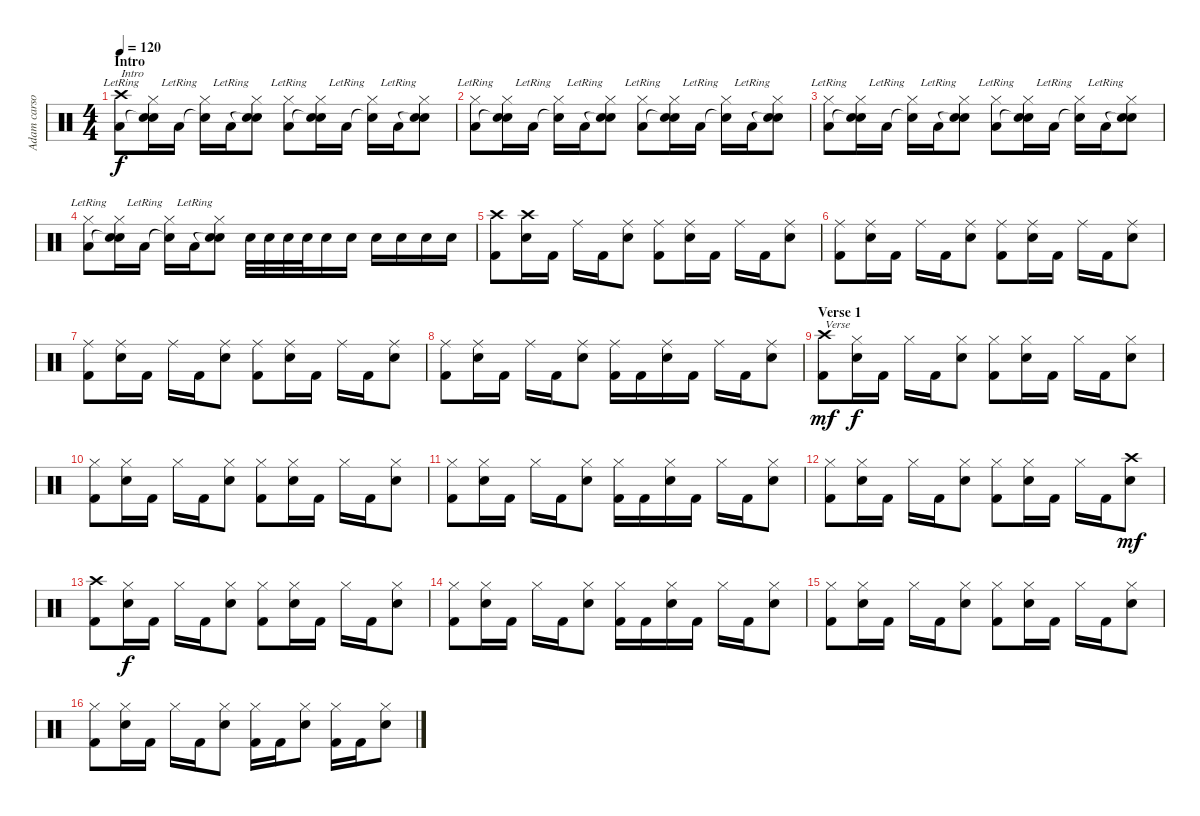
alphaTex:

\track ("Adam carson" "Adam carso") {instrument percussion}
\staff {score}
\articulation defaults
\ts (4 4)
\section ("" "Intro")
\tempo 120
\clef neutral
\ks c
("Low Floor Tom (hit)"{lr} "Crash high (hit)").8{txt "Intro" dy f} ("Snare (hit)"{t} "Snare (hit) 2" "Hi-Hat (closed)").16 "Low Floor Tom (hit)"{lr}.16 ("Snare (hit)"{t} "Hi-Hat (closed)").16 "Low Floor Tom (hit)"{lr}.16 ("Snare (hit)"{t} "Snare (hit) 2" "Hi-Hat (closed)").8 ("Low Floor Tom (hit)"{lr} "Hi-Hat (closed)").8 ("Snare (hit)"{t} "Snare (hit) 2" "Hi-Hat (closed)").16 "Low Floor Tom (hit)"{lr}.16 ("Snare (hit)"{t} "Hi-Hat (closed)").16 "Low Floor Tom (hit)"{lr}.16 ("Snare (hit)"{t} "Snare (hit) 2" "Hi-Hat (closed)").8 |
("Low Floor Tom (hit)"{lr} "Hi-Hat (closed)").8 ("Snare (hit)"{t} "Snare (hit) 2" "Hi-Hat (closed)").16 "Low Floor Tom (hit)"{lr}.16 ("Snare (hit)"{t} "Hi-Hat (closed)").16 "Low Floor Tom (hit)"{lr}.16 ("Snare (hit)"{t} "Snare (hit) 2" "Hi-Hat (closed)").8 ("Low Floor Tom (hit)"{lr} "Hi-Hat (closed)").8 ("Snare (hit)"{t} "Snare (hit) 2" "Hi-Hat (closed)").16 "Low Floor Tom (hit)"{lr}.16 ("Snare (hit)"{t} "Hi-Hat (closed)").16 "Low Floor Tom (hit)"{lr}.16 ("Snare (hit)"{t} "Snare (hit) 2" "Hi-Hat (closed)").8 |
("Low Floor Tom (hit)"{lr} "Hi-Hat (closed)").8 ("Snare (hit)"{t} "Snare (hit) 2" "Hi-Hat (closed)").16 "Low Floor Tom (hit)"{lr}.16 ("Snare (hit)"{t} "Hi-Hat (closed)").16 "Low Floor Tom (hit)"{lr}.16 ("Snare (hit)"{t} "Snare (hit) 2" "Hi-Hat (closed)").8 ("Low Floor Tom (hit)"{lr} "Hi-Hat (closed)").8 ("Snare (hit)"{t} "Snare (hit) 2" "Hi-Hat (closed)").16 "Low Floor Tom (hit)"{lr}.16 ("Snare (hit)"{t} "Hi-Hat (closed)").16 "Low Floor Tom (hit)"{lr}.16 ("Snare (hit)"{t} "Snare (hit) 2" "Hi-Hat (closed)").8 |
("Low Floor Tom (hit)"{lr} "Hi-Hat (closed)").8 ("Snare (hit)"{t} "Snare (hit) 2" "Hi-Hat (closed)").16 "Low Floor Tom (hit)"{lr}.16 ("Snare (hit)"{t} "Hi-Hat (closed)").16 "Low Floor Tom (hit)"{lr}.16 ("Snare (hit)"{t} "Snare (hit) 2" "Hi-Hat (closed)").8 "Snare (hit) 2".32 "Snare (hit) 2".32 "Snare (hit) 2".32 "Snare (hit) 2".32 "Snare (hit) 2".16 "Snare (hit) 2".16 "Snare (hit) 2".16 "Snare (hit) 2".16 "Snare (hit) 2".16 "Snare (hit) 2".16 |
("Kick (hit) 2" "Crash high (hit)").8 ("Crash high (hit)" "Snare (hit) 2").16 "Kick (hit) 2".16 "Ride (middle)".16 "Kick (hit) 2".16 ("Ride (middle)" "Snare (hit) 2").8 ("Kick (hit) 2" "Ride (middle)").8 ("Ride (middle)" "Snare (hit) 2").16 "Kick (hit) 2".16 "Ride (middle)".16 "Kick (hit) 2".16 ("Ride (middle)" "Snare (hit) 2").8 |
("Kick (hit) 2" "Ride (middle)").8 ("Ride (middle)" "Snare (hit) 2").16 "Kick (hit) 2".16 "Ride (middle)".16 "Kick (hit) 2".16 ("Ride (middle)" "Snare (hit) 2").8 ("Kick (hit) 2" "Ride (middle)").8 ("Ride (middle)" "Snare (hit) 2").16 "Kick (hit) 2".16 "Ride (middle)".16 "Kick (hit) 2".16 ("Ride (middle)" "Snare (hit) 2").8 |
("Kick (hit) 2" "Ride (middle)").8 ("Ride (middle)" "Snare (hit) 2").16 "Kick (hit) 2".16 "Ride (middle)".16 "Kick (hit) 2".16 ("Ride (middle)" "Snare (hit) 2").8 ("Kick (hit) 2" "Ride (middle)").8 ("Ride (middle)" "Snare (hit) 2").16 "Kick (hit) 2".16 "Ride (middle)".16 "Kick (hit) 2".16 ("Ride (middle)" "Snare (hit) 2").8 |
("Kick (hit) 2" "Ride (middle)").8 ("Snare (hit) 2" "Ride (middle)").16 "Kick (hit) 2".16 "Ride (middle)".16 "Kick (hit) 2".16 ("Snare (hit) 2" "Ride (middle)").8 ("Kick (hit) 2" "Ride (middle)").16 "Kick (hit) 2".16 ("Snare (hit) 2" "Ride (middle)").16 "Kick (hit) 2".16 "Ride (middle)".16 "Kick (hit) 2".16 ("Snare (hit) 2" "Ride (middle)").8 |
\section ("" "Verse 1")
("Kick (hit) 2" "Crash high (hit)").8{txt "Verse" dy mf} ("Snare (hit) 2" "Hi-Hat (closed)").16{dy f} "Kick (hit) 2".16 "Hi-Hat (closed)".16 "Kick (hit) 2".16 ("Snare (hit) 2" "Hi-Hat (closed)").8 ("Kick (hit) 2" "Hi-Hat (closed)").8 ("Snare (hit) 2" "Hi-Hat (closed)").16 "Kick (hit) 2".16 "Hi-Hat (closed)".16 "Kick (hit) 2".16 ("Snare (hit) 2" "Hi-Hat (closed)").8 |
("Kick (hit) 2" "Hi-Hat (closed)").8 ("Snare (hit) 2" "Hi-Hat (closed)").16 "Kick (hit) 2".16 "Hi-Hat (closed)".16 "Kick (hit) 2".16 ("Snare (hit) 2" "Hi-Hat (closed)").8 ("Kick (hit) 2" "Hi-Hat (closed)").8 ("Snare (hit) 2" "Hi-Hat (closed)").16 "Kick (hit) 2".16 "Hi-Hat (closed)".16 "Kick (hit) 2".16 ("Snare (hit) 2" "Hi-Hat (closed)").8 |
("Kick (hit) 2" "Hi-Hat (closed)").8 ("Snare (hit) 2" "Hi-Hat (closed)").16 "Kick (hit) 2".16 "Hi-Hat (closed)".16 "Kick (hit) 2".16 ("Snare (hit) 2" "Hi-Hat (closed)").8 ("Kick (hit) 2" "Hi-Hat (closed)").16 "Kick (hit) 2".16 ("Snare (hit) 2" "Hi-Hat (closed)").16 "Kick (hit) 2".16 "Hi-Hat (closed)".16 "Kick (hit) 2".16 ("Snare (hit) 2" "Hi-Hat (closed)").8 |
("Kick (hit) 2" "Hi-Hat (closed)").8 ("Snare (hit) 2" "Hi-Hat (closed)").16 "Kick (hit) 2".16 "Hi-Hat (closed)".16 "Kick (hit) 2".16 ("Snare (hit) 2" "Hi-Hat (closed)").8 ("Kick (hit) 2" "Hi-Hat (closed)").8 ("Snare (hit) 2" "Hi-Hat (closed)").16 "Kick (hit) 2".16 "Hi-Hat (closed)".16 "Kick (hit) 2".16 ("Crash high (hit)" "Snare (hit) 2").8{dy mf} |
("Kick (hit) 2" "Crash high (hit)").8 ("Snare (hit) 2" "Hi-Hat (closed)").16{dy f} "Kick (hit) 2".16 "Hi-Hat (closed)".16 "Kick (hit) 2".16 ("Snare (hit) 2" "Hi-Hat (closed)").8 ("Kick (hit) 2" "Hi-Hat (closed)").8 ("Snare (hit) 2" "Hi-Hat (closed)").16 "Kick (hit) 2".16 "Hi-Hat (closed)".16 "Kick (hit) 2".16 ("Snare (hit) 2" "Hi-Hat (closed)").8 |
("Kick (hit) 2" "Hi-Hat (closed)").8 ("Snare (hit) 2" "Hi-Hat (closed)").16 "Kick (hit) 2".16 "Hi-Hat (closed)".16 "Kick (hit) 2".16 ("Snare (hit) 2" "Hi-Hat (closed)").8 ("Kick (hit) 2" "Hi-Hat (closed)").16 "Kick (hit) 2".16 ("Snare (hit) 2" "Hi-Hat (closed)").16 "Kick (hit) 2".16 "Hi-Hat (closed)".16 "Kick (hit) 2".16 ("Snare (hit) 2" "Hi-Hat (closed)").8 |
("Kick (hit) 2" "Hi-Hat (closed)").8 ("Snare (hit) 2" "Hi-Hat (closed)").16 "Kick (hit) 2".16 "Hi-Hat (closed)".16 "Kick (hit) 2".16 ("Snare (hit) 2" "Hi-Hat (closed)").8 ("Kick (hit) 2" "Hi-Hat (closed)").8 ("Snare (hit) 2" "Hi-Hat (closed)").16 "Kick (hit) 2".16 "Hi-Hat (closed)".16 "Kick (hit) 2".16 ("Snare (hit) 2" "Hi-Hat (closed)").8 |
("Kick (hit) 2" "Hi-Hat (closed)").8 ("Snare (hit) 2" "Hi-Hat (closed)").16 "Kick (hit) 2".16 "Hi-Hat (closed)".16 "Kick (hit) 2".16 ("Snare (hit) 2" "Hi-Hat (closed)").8 ("Kick (hit) 2" "Hi-Hat (closed)").16 "Kick (hit) 2".16 ("Snare (hit) 2" "Hi-Hat (closed)").8 ("Kick (hit) 2" "Hi-Hat (closed)").16 "Kick (hit) 2".16 ("Snare (hit) 2" "Hi-Hat (closed)").8
